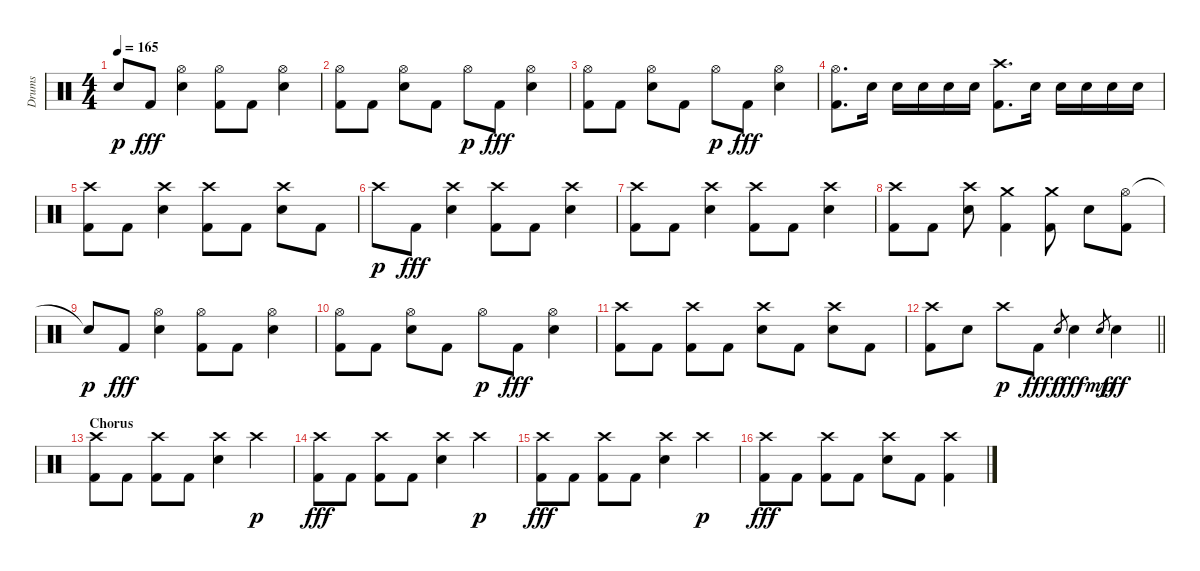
\track ("Drums" "Drums") {instrument percussion}
\staff {score}
\articulation defaults
\ts (4 4)
\tempo 165
\clef neutral
\ks c "Snare (hit)"{t}.8{dy p} "Kick (hit) 2".8{dy fff}
("Hi-Hat (open)" "Snare (hit) 2").4 ("Hi-Hat (open)" "Kick (hit) 2").8 "Kick (hit) 2".8 ("Hi-Hat (open)" "Snare (hit) 2").4 |
("Hi-Hat (open)" "Kick (hit) 2").8 "Kick (hit) 2".8 ("Hi-Hat (open)" "Snare (hit) 2").8 "Kick (hit) 2".8 "Hi-Hat (open)".8{dy p} "Kick (hit) 2".8{dy fff} ("Hi-Hat (open)" "Snare (hit) 2").4 |
("Hi-Hat (open)" "Kick (hit) 2").8 "Kick (hit) 2".8 ("Hi-Hat (open)" "Snare (hit) 2").8 "Kick (hit) 2".8 "Hi-Hat (open)".8{dy p} "Kick (hit) 2".8{dy fff} ("Hi-Hat (open)" "Snare (hit) 2").4 |
("Hi-Hat (open)" "Kick (hit) 2").8{d} "Snare (hit) 2".16 "Snare (hit) 2".16 "Snare (hit) 2".16 "Snare (hit) 2".16 "Snare (hit) 2".16 ("Crash high (hit)" "Kick (hit) 2").8{d} "Snare (hit) 2".16 "Snare (hit) 2".16 "Snare (hit) 2".16 "Snare (hit) 2".16 "Snare (hit) 2".16 |
("Crash high (hit)" "Kick (hit) 2").8 "Kick (hit) 2".8 ("Crash high (hit)" "Snare (hit) 2").4 ("Crash high (hit)" "Kick (hit) 2").8 "Kick (hit) 2".8 ("Crash high (hit)" "Snare (hit) 2").8 "Kick (hit) 2".8 |
"Crash high (hit)".8{dy p} "Kick (hit) 2".8{dy fff} ("Crash high (hit)" "Snare (hit) 2").4 ("Crash high (hit)" "Kick (hit) 2").8 "Kick (hit) 2".8 ("Crash high (hit)" "Snare (hit) 2").4 |
("Crash high (hit)" "Kick (hit) 2").8 "Kick (hit) 2".8 ("Crash high (hit)" "Snare (hit) 2").4 ("Crash high (hit)" "Kick (hit) 2").8 "Kick (hit) 2".8 ("Crash high (hit)" "Snare (hit) 2").4 |
("Crash high (hit)" "Kick (hit) 2").8 "Kick (hit) 2".8 ("Crash high (hit)" "Snare (hit) 2").8 ("Crash medium (hit)" "Kick (hit) 2").4 ("Crash medium (hit)" "Kick (hit) 2").8 "Snare (hit) 2".8 ("Hi-Hat (open)" "Kick (hit) 2").8 |
"Snare (hit)"{t}.8{dy p} "Kick (hit) 2".8{dy fff} ("Hi-Hat (open)" "Snare (hit) 2").4 ("Hi-Hat (open)" "Kick (hit) 2").8 "Kick (hit) 2".8 ("Hi-Hat (open)" "Snare (hit) 2").4 |
("Hi-Hat (open)" "Kick (hit) 2").8 "Kick (hit) 2".8 ("Hi-Hat (open)" "Snare (hit) 2").8 "Kick (hit) 2".8 "Hi-Hat (open)".8{dy p} "Kick (hit) 2".8{dy fff} ("Hi-Hat (open)" "Snare (hit) 2").4 |
("Crash high (hit)" "Kick (hit) 2").8 "Kick (hit) 2".8 ("Crash high (hit)" "Kick (hit) 2").8 "Kick (hit) 2".8 ("Crash high (hit)" "Snare (hit) 2").8 "Kick (hit) 2".8 ("Crash high (hit)" "Snare (hit) 2").8 "Kick (hit) 2".8 |
\barLineRight lightlight
("Crash high (hit)" "Kick (hit) 2").8 "Snare (hit) 2".8 "Crash high (hit)".8{dy p} "Kick (hit) 2".8{dy fff} "Snare (hit) 2".8{gr dy f} "Snare (hit) 2".4{dy fff} "Snare (hit) 2".8{gr dy mp} "Snare (hit) 2".4{dy fff} |
\section ("" "Chorus")
("Crash high (hit)" "Kick (hit) 2").8 "Kick (hit) 2".8 ("Crash high (hit)" "Kick (hit) 2").8 "Kick (hit) 2".8 ("Crash high (hit)" "Snare (hit) 2").4 "Crash high (hit)".4{dy p} |
("Crash high (hit)" "Kick (hit) 2").8{dy fff} "Kick (hit) 2".8 ("Crash high (hit)" "Kick (hit) 2").8 "Kick (hit) 2".8 ("Crash high (hit)" "Snare (hit) 2").4 "Crash high (hit)".4{dy p} |
("Crash high (hit)" "Kick (hit) 2").8{dy fff} "Kick (hit) 2".8 ("Crash high (hit)" "Kick (hit) 2").8 "Kick (hit) 2".8 ("Crash high (hit)" "Snare (hit) 2").4 "Crash high (hit)".4{dy p} |
("Crash high (hit)" "Kick (hit) 2").8{dy fff} "Kick (hit) 2".8 ("Crash high (hit)" "Kick (hit) 2").8 "Kick (hit) 2".8 ("Crash high (hit)" "Snare (hit) 2").8 "Kick (hit) 2".8 ("Crash high (hit)" "Kick (hit) 2").4
